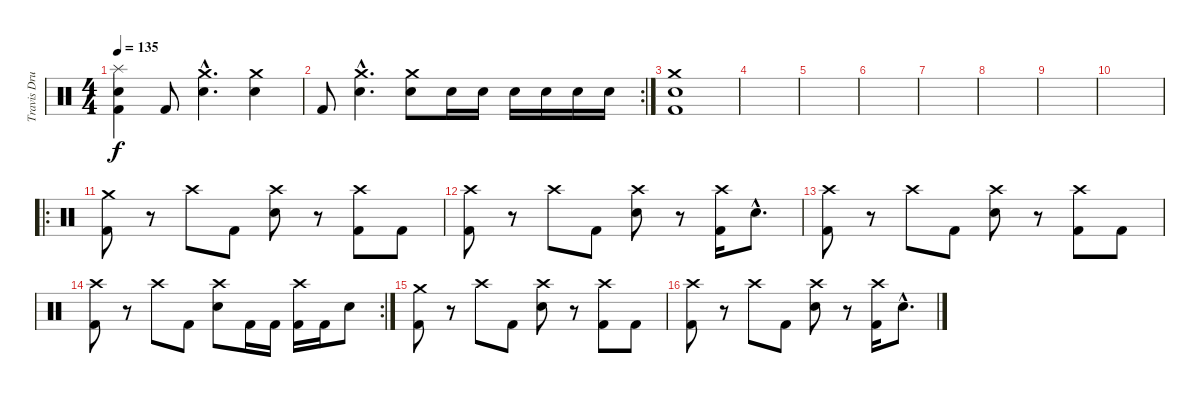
\track ("Travis Drums" "Travis Dru") {instrument percussion}
\staff {score}
\articulation defaults
\ts (4 4)
\tempo 135
\clef neutral
\ks c
("Splash (hit)" "Electric Snare (hit)" "Kick (hit) 2").4{dy f} "Kick (hit) 2".8 ("Crash medium (hit)"{hac} "Electric Snare (hit)"{hac}).4{d} ("Crash medium (hit)" "Electric Snare (hit)").4 |
\rc 2 "Kick (hit) 2".8
("Crash medium (hit)"{hac} "Electric Snare (hit)"{hac}).4{d} ("Crash medium (hit)" "Electric Snare (hit)").8 "Electric Snare (hit)".16 "Electric Snare (hit)".16 "Electric Snare (hit)".16 "Electric Snare (hit)".16 "Electric Snare (hit)".16 "Electric Snare (hit)".16 |
("Crash medium (hit)" "Electric Snare (hit)" "Kick (hit) 2").1 |
|
|
|
|
|
|
|
\ro
("Crash medium (hit)" "Kick (hit) 2").8 r.8 "Crash high (hit)".8 "Kick (hit) 2".8 ("Crash high (hit)" "Electric Snare (hit)").8 r.8 ("Crash high (hit)" "Kick (hit) 2").8 "Kick (hit) 2".8 |
("Crash high (hit)" "Kick (hit) 2").8 r.8 "Crash high (hit)".8 "Kick (hit) 2".8 ("Crash high (hit)" "Electric Snare (hit)").8 r.8 ("Crash high (hit)" "Kick (hit) 2").16 "Electric Snare (hit)"{hac}.8{d} |
("Crash high (hit)" "Kick (hit) 2").8 r.8 "Crash high (hit)".8 "Kick (hit) 2".8 ("Crash high (hit)" "Electric Snare (hit)").8 r.8 ("Crash high (hit)" "Kick (hit) 2").8 "Kick (hit) 2".8 |
\rc 2
("Crash high (hit)" "Kick (hit) 2").8 r.8 "Crash high (hit)".8 "Kick (hit) 2".8 ("Crash high (hit)" "Electric Snare (hit)").8 "Kick (hit) 2".16 "Kick (hit) 2".16 ("Crash high (hit)" "Kick (hit) 2").16 "Kick (hit) 2".16 "Electric Snare (hit)".8 |
("Crash medium (hit)" "Kick (hit) 2").8 r.8 "Crash high (hit)".8 "Kick (hit) 2".8 ("Crash high (hit)" "Electric Snare (hit)").8 r.8 ("Crash high (hit)" "Kick (hit) 2").8 "Kick (hit) 2".8 |
("Crash high (hit)" "Kick (hit) 2").8 r.8 "Crash high (hit)".8 "Kick (hit) 2".8 ("Crash high (hit)" "Electric Snare (hit)").8 r.8 ("Crash high (hit)" "Kick (hit) 2").16 "Electric Snare (hit)"{hac}.8{d}
